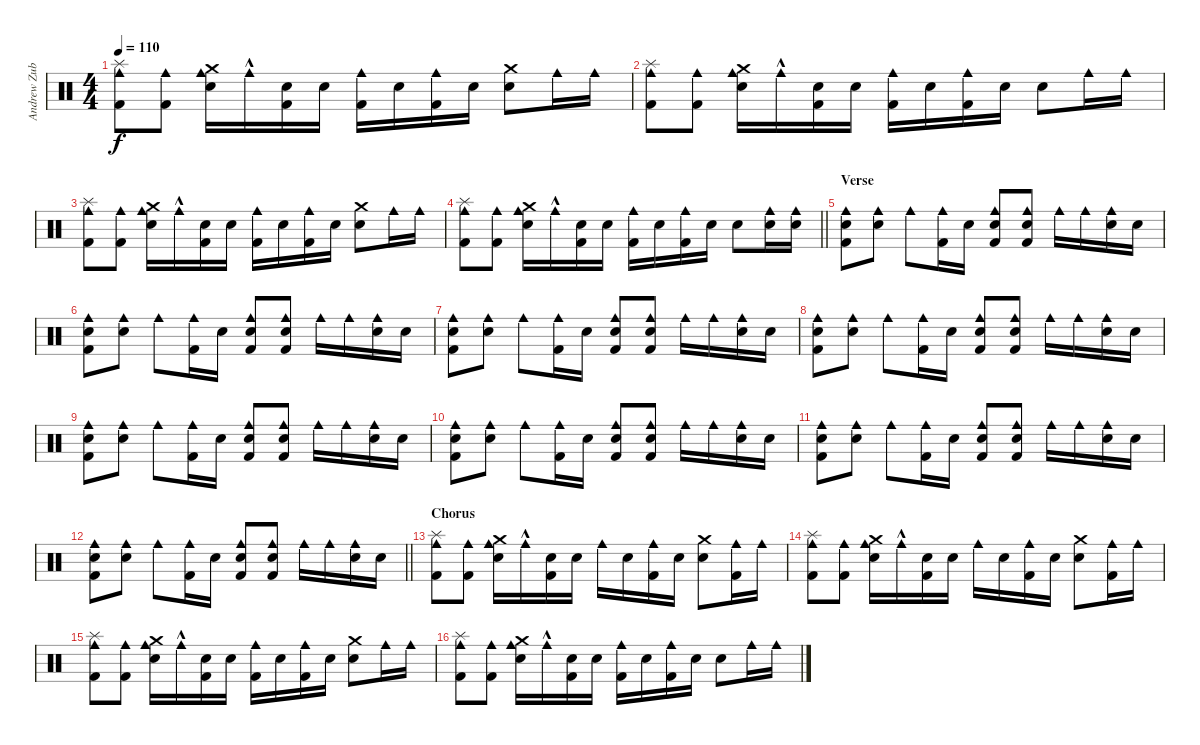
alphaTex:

\track ("Andrew Zubiszewski" "Andrew Zub") {instrument percussion}
\staff {score}
\articulation defaults
\ts (4 4)
\tempo 110
\clef neutral
\ks c
("Kick (hit) 2" "Splash (hit)" "Cowbell medium (hit)").8{dy f} ("Kick (hit) 2" "Cowbell medium (hit)").8 ("Electric Snare (hit)" "Cowbell medium (hit)" "Crash medium (hit)").16 "Cowbell medium (hit)"{hac}.16 ("Kick (hit) 2" "Electric Snare (hit)").16 "Electric Snare (hit)".16 ("Kick (hit) 2" "Cowbell medium (hit)").16 "Electric Snare (hit)".16 ("Kick (hit) 2" "Cowbell medium (hit)").16 "Electric Snare (hit)".16 ("Electric Snare (hit)" "Crash medium (hit)").8 "Cowbell medium (hit)".16 "Cowbell medium (hit)".16 |
("Kick (hit) 2" "Splash (hit)" "Cowbell medium (hit)").8 ("Kick (hit) 2" "Cowbell medium (hit)").8 ("Electric Snare (hit)" "Cowbell medium (hit)" "Crash medium (hit)").16 "Cowbell medium (hit)"{hac}.16 ("Kick (hit) 2" "Electric Snare (hit)").16 "Electric Snare (hit)".16 ("Kick (hit) 2" "Cowbell medium (hit)").16 "Electric Snare (hit)".16 ("Kick (hit) 2" "Cowbell medium (hit)").16 "Electric Snare (hit)".16 "Electric Snare (hit)".8 "Cowbell medium (hit)".16 "Cowbell medium (hit)".16 |
("Kick (hit) 2" "Splash (hit)" "Cowbell medium (hit)").8 ("Kick (hit) 2" "Cowbell medium (hit)").8 ("Electric Snare (hit)" "Cowbell medium (hit)" "Crash medium (hit)").16 "Cowbell medium (hit)"{hac}.16 ("Kick (hit) 2" "Electric Snare (hit)").16 "Electric Snare (hit)".16 ("Kick (hit) 2" "Cowbell medium (hit)").16 "Electric Snare (hit)".16 ("Kick (hit) 2" "Cowbell medium (hit)").16 "Electric Snare (hit)".16 ("Electric Snare (hit)" "Crash medium (hit)").8 "Cowbell medium (hit)".16 "Cowbell medium (hit)".16 |
\barLineRight lightlight
("Kick (hit) 2" "Splash (hit)" "Cowbell medium (hit)").8 ("Kick (hit) 2" "Cowbell medium (hit)").8 ("Electric Snare (hit)" "Cowbell medium (hit)" "Crash medium (hit)").16 "Cowbell medium (hit)"{hac}.16 ("Kick (hit) 2" "Electric Snare (hit)").16 "Electric Snare (hit)".16 ("Kick (hit) 2" "Cowbell medium (hit)").16 "Electric Snare (hit)".16 ("Kick (hit) 2" "Cowbell medium (hit)").16 "Electric Snare (hit)".16 "Electric Snare (hit)".8 ("Cowbell medium (hit)" "Electric Snare (hit)").16 ("Cowbell medium (hit)" "Electric Snare (hit)").16 |
\section ("" "Verse")
("Cowbell medium (hit)" "Kick (hit) 2" "Electric Snare (hit)").8 ("Cowbell medium (hit)" "Electric Snare (hit)").8 "Cowbell medium (hit)".8 ("Cowbell medium (hit)" "Kick (hit) 2").16 "Electric Snare (hit)".16 ("Cowbell medium (hit)" "Kick (hit) 2" "Electric Snare (hit)").8 ("Cowbell medium (hit)" "Kick (hit) 2" "Electric Snare (hit)").8 "Cowbell medium (hit)".16 "Cowbell medium (hit)".16 ("Cowbell medium (hit)" "Electric Snare (hit)").16 "Electric Snare (hit)".16 |
("Cowbell medium (hit)" "Kick (hit) 2" "Electric Snare (hit)").8 ("Cowbell medium (hit)" "Electric Snare (hit)").8 "Cowbell medium (hit)".8 ("Cowbell medium (hit)" "Kick (hit) 2").16 "Electric Snare (hit)".16 ("Cowbell medium (hit)" "Kick (hit) 2" "Electric Snare (hit)").8 ("Cowbell medium (hit)" "Kick (hit) 2" "Electric Snare (hit)").8 "Cowbell medium (hit)".16 "Cowbell medium (hit)".16 ("Cowbell medium (hit)" "Electric Snare (hit)").16 "Electric Snare (hit)".16 |
("Cowbell medium (hit)" "Kick (hit) 2" "Electric Snare (hit)").8 ("Cowbell medium (hit)" "Electric Snare (hit)").8 "Cowbell medium (hit)".8 ("Cowbell medium (hit)" "Kick (hit) 2").16 "Electric Snare (hit)".16 ("Cowbell medium (hit)" "Kick (hit) 2" "Electric Snare (hit)").8 ("Cowbell medium (hit)" "Kick (hit) 2" "Electric Snare (hit)").8 "Cowbell medium (hit)".16 "Cowbell medium (hit)".16 ("Cowbell medium (hit)" "Electric Snare (hit)").16 "Electric Snare (hit)".16 |
("Cowbell medium (hit)" "Kick (hit) 2" "Electric Snare (hit)").8 ("Cowbell medium (hit)" "Electric Snare (hit)").8 "Cowbell medium (hit)".8 ("Cowbell medium (hit)" "Kick (hit) 2").16 "Electric Snare (hit)".16 ("Cowbell medium (hit)" "Kick (hit) 2" "Electric Snare (hit)").8 ("Cowbell medium (hit)" "Kick (hit) 2" "Electric Snare (hit)").8 "Cowbell medium (hit)".16 "Cowbell medium (hit)".16 ("Cowbell medium (hit)" "Electric Snare (hit)").16 "Electric Snare (hit)".16 |
("Cowbell medium (hit)" "Kick (hit) 2" "Electric Snare (hit)").8 ("Cowbell medium (hit)" "Electric Snare (hit)").8 "Cowbell medium (hit)".8 ("Cowbell medium (hit)" "Kick (hit) 2").16 "Electric Snare (hit)".16 ("Cowbell medium (hit)" "Kick (hit) 2" "Electric Snare (hit)").8 ("Cowbell medium (hit)" "Kick (hit) 2" "Electric Snare (hit)").8 "Cowbell medium (hit)".16 "Cowbell medium (hit)".16 ("Cowbell medium (hit)" "Electric Snare (hit)").16 "Electric Snare (hit)".16 |
("Cowbell medium (hit)" "Kick (hit) 2" "Electric Snare (hit)").8 ("Cowbell medium (hit)" "Electric Snare (hit)").8 "Cowbell medium (hit)".8 ("Cowbell medium (hit)" "Kick (hit) 2").16 "Electric Snare (hit)".16 ("Cowbell medium (hit)" "Kick (hit) 2" "Electric Snare (hit)").8 ("Cowbell medium (hit)" "Kick (hit) 2" "Electric Snare (hit)").8 "Cowbell medium (hit)".16 "Cowbell medium (hit)".16 ("Cowbell medium (hit)" "Electric Snare (hit)").16 "Electric Snare (hit)".16 |
("Cowbell medium (hit)" "Kick (hit) 2" "Electric Snare (hit)").8 ("Cowbell medium (hit)" "Electric Snare (hit)").8 "Cowbell medium (hit)".8 ("Cowbell medium (hit)" "Kick (hit) 2").16 "Electric Snare (hit)".16 ("Cowbell medium (hit)" "Kick (hit) 2" "Electric Snare (hit)").8 ("Cowbell medium (hit)" "Kick (hit) 2" "Electric Snare (hit)").8 "Cowbell medium (hit)".16 "Cowbell medium (hit)".16 ("Cowbell medium (hit)" "Electric Snare (hit)").16 "Electric Snare (hit)".16 |
\barLineRight lightlight
("Cowbell medium (hit)" "Kick (hit) 2" "Electric Snare (hit)").8 ("Cowbell medium (hit)" "Electric Snare (hit)").8 "Cowbell medium (hit)".8 ("Cowbell medium (hit)" "Kick (hit) 2").16 "Electric Snare (hit)".16 ("Cowbell medium (hit)" "Kick (hit) 2" "Electric Snare (hit)").8 ("Cowbell medium (hit)" "Kick (hit) 2" "Electric Snare (hit)").8 "Cowbell medium (hit)".16 "Cowbell medium (hit)".16 ("Cowbell medium (hit)" "Electric Snare (hit)").16 "Electric Snare (hit)".16 |
\section ("" "Chorus")
("Kick (hit) 2" "Splash (hit)" "Cowbell medium (hit)").8 ("Kick (hit) 2" "Cowbell medium (hit)").8 ("Electric Snare (hit)" "Cowbell medium (hit)" "Crash medium (hit)").16 "Cowbell medium (hit)"{hac}.16 ("Kick (hit) 2" "Electric Snare (hit)").16 "Electric Snare (hit)".16 "Cowbell medium (hit)".16 "Electric Snare (hit)".16 ("Kick (hit) 2" "Cowbell medium (hit)").16 "Electric Snare (hit)".16 ("Electric Snare (hit)" "Crash medium (hit)").8 ("Cowbell medium (hit)" "Kick (hit) 2").16 "Cowbell medium (hit)".16 |
("Kick (hit) 2" "Splash (hit)" "Cowbell medium (hit)").8 ("Kick (hit) 2" "Cowbell medium (hit)").8 ("Electric Snare (hit)" "Cowbell medium (hit)" "Crash medium (hit)").16 "Cowbell medium (hit)"{hac}.16 ("Kick (hit) 2" "Electric Snare (hit)").16 "Electric Snare (hit)".16 "Cowbell medium (hit)".16 "Electric Snare (hit)".16 ("Kick (hit) 2" "Cowbell medium (hit)").16 "Electric Snare (hit)".16 ("Electric Snare (hit)" "Crash medium (hit)").8 ("Cowbell medium (hit)" "Kick (hit) 2").16 "Cowbell medium (hit)".16 |
("Kick (hit) 2" "Splash (hit)" "Cowbell medium (hit)").8 ("Kick (hit) 2" "Cowbell medium (hit)").8 ("Electric Snare (hit)" "Cowbell medium (hit)" "Crash medium (hit)").16 "Cowbell medium (hit)"{hac}.16 ("Kick (hit) 2" "Electric Snare (hit)").16 "Electric Snare (hit)".16 ("Kick (hit) 2" "Cowbell medium (hit)").16 "Electric Snare (hit)".16 ("Kick (hit) 2" "Cowbell medium (hit)").16 "Electric Snare (hit)".16 ("Electric Snare (hit)" "Crash medium (hit)").8 "Cowbell medium (hit)".16 "Cowbell medium (hit)".16 |
("Kick (hit) 2" "Splash (hit)" "Cowbell medium (hit)").8 ("Kick (hit) 2" "Cowbell medium (hit)").8 ("Electric Snare (hit)" "Cowbell medium (hit)" "Crash medium (hit)").16 "Cowbell medium (hit)"{hac}.16 ("Kick (hit) 2" "Electric Snare (hit)").16 "Electric Snare (hit)".16 ("Kick (hit) 2" "Cowbell medium (hit)").16 "Electric Snare (hit)".16 ("Kick (hit) 2" "Cowbell medium (hit)").16 "Electric Snare (hit)".16 "Electric Snare (hit)".8 "Cowbell medium (hit)".16 "Cowbell medium (hit)".16
